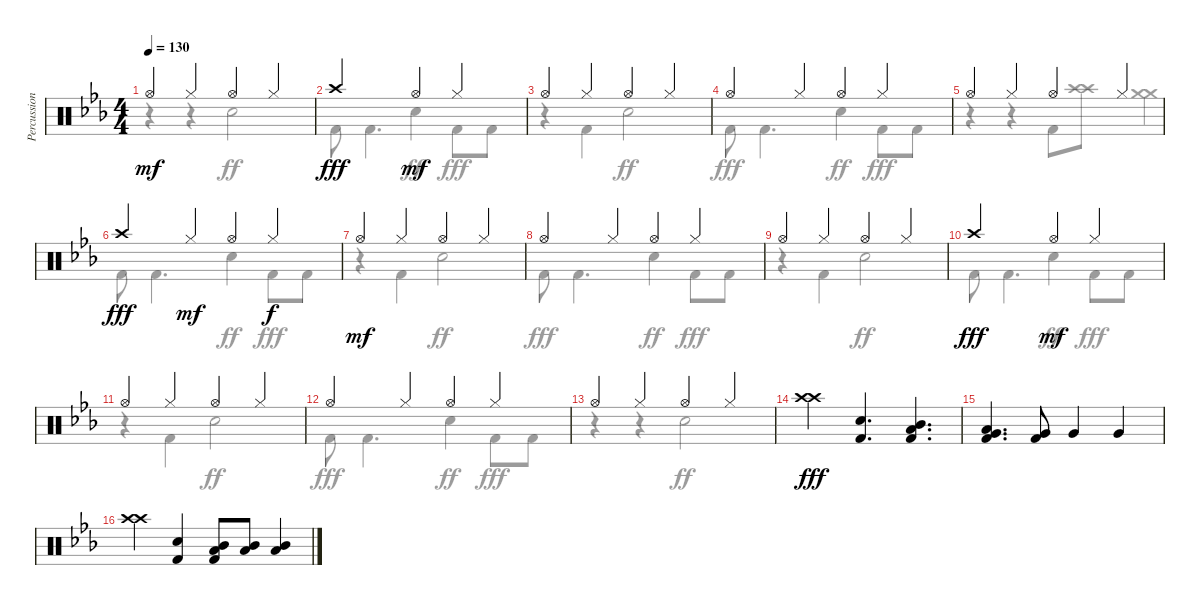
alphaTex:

\track ("Percussion" "Percussion") {instrument percussion}
\staff {score}
\articulation defaults
\voice
\ts (4 4)
\tempo 130
\clef neutral
\ks cminor "Hi-Hat (open)".4{dy mf} "Hi-Hat (closed)".4 "Hi-Hat (open)".4 "Hi-Hat (closed)".4
|
"Crash high (hit)".2{dy fff} "Hi-Hat (open)".4{dy mf} "Hi-Hat (closed)".4 |
"Hi-Hat (open)".4 "Hi-Hat (closed)".4 "Hi-Hat (open)".4 "Hi-Hat (closed)".4 |
"Hi-Hat (open)".4 "Hi-Hat (closed)".4 "Hi-Hat (open)".4 "Hi-Hat (closed)".4 |
"Hi-Hat (open)".4 "Hi-Hat (closed)".4 "Hi-Hat (open)".4 "Hi-Hat (closed)".4 |
"Crash high (hit)".4{dy fff} "Hi-Hat (closed)".4{dy mf} "Hi-Hat (open)".4 "Hi-Hat (closed)".4{dy f} |
"Hi-Hat (open)".4{dy mf} "Hi-Hat (closed)".4 "Hi-Hat (open)".4 "Hi-Hat (closed)".4 |
"Hi-Hat (open)".4 "Hi-Hat (closed)".4 "Hi-Hat (open)".4 "Hi-Hat (closed)".4 |
"Hi-Hat (open)".4 "Hi-Hat (closed)".4 "Hi-Hat (open)".4 "Hi-Hat (closed)".4 |
"Crash high (hit)".2{dy fff} "Hi-Hat (open)".4{dy mf} "Hi-Hat (closed)".4 |
"Hi-Hat (open)".4 "Hi-Hat (closed)".4 "Hi-Hat (open)".4 "Hi-Hat (closed)".4 |
"Hi-Hat (open)".4 "Hi-Hat (closed)".4 "Hi-Hat (open)".4 "Hi-Hat (closed)".4 |
"Hi-Hat (open)".4 "Hi-Hat (closed)".4 "Hi-Hat (open)".4 "Hi-Hat (closed)".4 |
("Crash high (hit)" "Crash high (hit)").4{dy fff} ("Electric Snare (hit)" "Kick (hit) 2").4{d} ("Mid Tom (hit)" "Low Tom (hit)" "Kick (hit) 2").4{d} |
("Low Tom (hit)" "Very Low Tom (hit)" "Kick (hit) 2").4{d} ("Very Low Tom (hit)" "Kick (hit) 2").8 "Very Low Tom (hit)".4 "Very Low Tom (hit)".4 |
("Crash high (hit)" "Crash high (hit)").4 ("Electric Snare (hit)" "Kick (hit) 2").4 ("Mid Tom (hit)" "Low Tom (hit)" "Kick (hit) 2").8 ("Mid Tom (hit)" "Low Tom (hit)").8 ("Mid Tom (hit)" "Low Tom (hit)").4
\voice
\clef neutral
\ottava regular
\simile none
\ks cminor
r.4{dy fff} r.4 "Electric Snare (hit)".2{dy ff} |
"Kick (hit) 2".8{dy fff} "Kick (hit) 2".4{d} "Electric Snare (hit)".4{dy ff} "Kick (hit) 2".8{dy fff} "Kick (hit) 2".8 |
r.4 "Kick (hit) 2".4 "Electric Snare (hit)".2{dy ff} |
"Kick (hit) 2".8{dy fff} "Kick (hit) 2".4{d} "Electric Snare (hit)".4{dy ff} "Kick (hit) 2".8{dy fff} "Kick (hit) 2".8 |
r.4 r.4 "Kick (hit) 2".8 ("Crash high (hit)" "Crash high (hit)").8 ("Crash medium (hit)" "Crash medium (hit)").4 |
"Kick (hit) 2".8 "Kick (hit) 2".4{d} "Electric Snare (hit)".4{dy ff} "Kick (hit) 2".8{dy fff} "Kick (hit) 2".8 |
r.4 "Kick (hit) 2".4 "Electric Snare (hit)".2{dy ff} |
"Kick (hit) 2".8{dy fff} "Kick (hit) 2".4{d} "Electric Snare (hit)".4{dy ff} "Kick (hit) 2".8{dy fff} "Kick (hit) 2".8 |
r.4 "Kick (hit) 2".4 "Electric Snare (hit)".2{dy ff} |
"Kick (hit) 2".8{dy fff} "Kick (hit) 2".4{d} "Electric Snare (hit)".4{dy ff} "Kick (hit) 2".8{dy fff} "Kick (hit) 2".8 |
r.4 "Kick (hit) 2".4 "Electric Snare (hit)".2{dy ff} |
"Kick (hit) 2".8{dy fff} "Kick (hit) 2".4{d} "Electric Snare (hit)".4{dy ff} "Kick (hit) 2".8{dy fff} "Kick (hit) 2".8 |
r.4 r.4 "Electric Snare (hit)".2{dy ff} |
|
|
